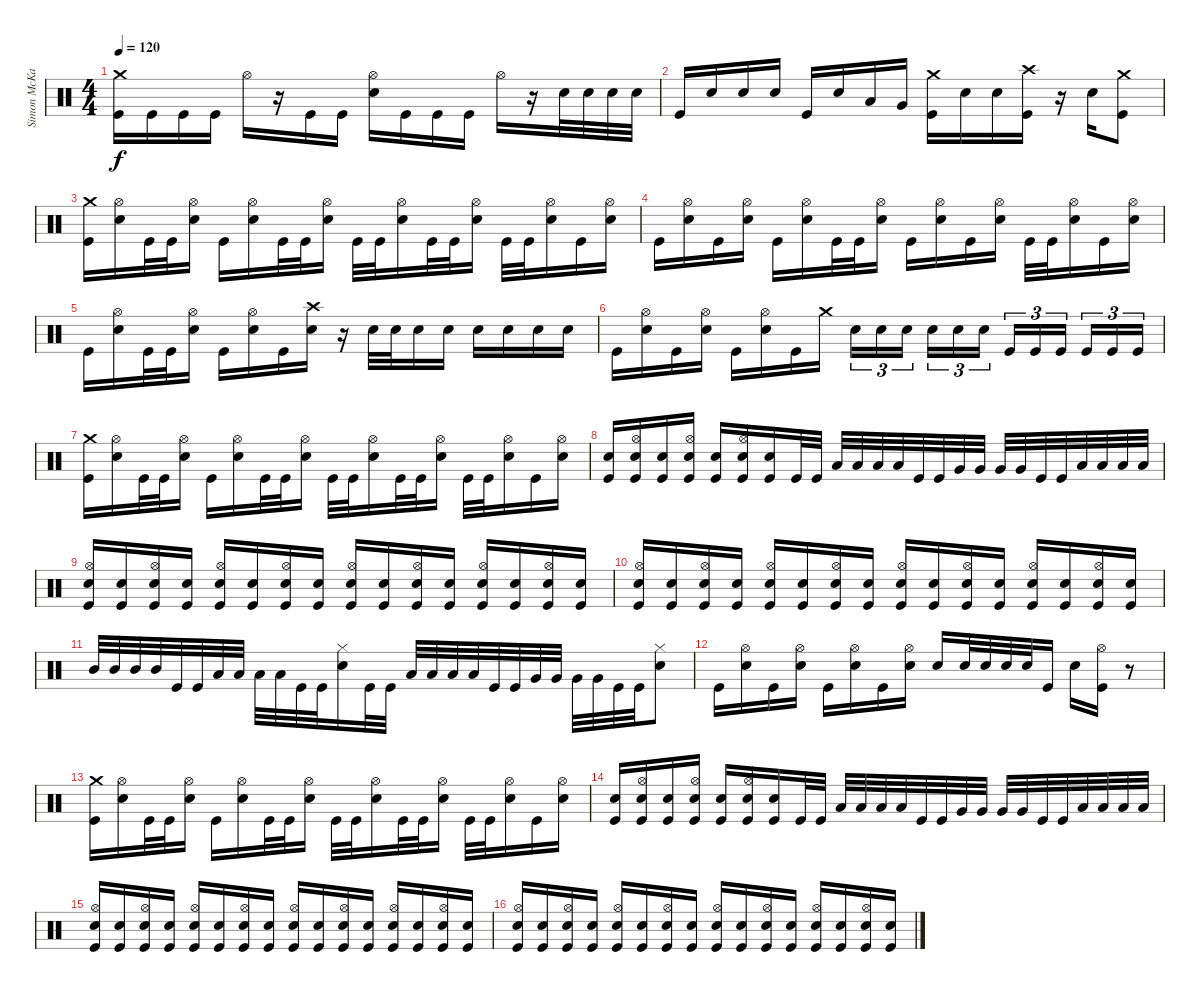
\track ("Simon McKay" "Simon McKa") {instrument percussion}
\staff {score}
\articulation defaults
\ts (4 4)
\tempo 120
\clef neutral
\ks c
("Crash medium (hit)" "Kick (hit)").16{dy f} "Kick (hit)".16 "Kick (hit)".16 "Kick (hit)".16 "Hi-Hat (open)".16 r.16 "Kick (hit)".16 "Kick (hit)".16 ("Hi-Hat (open)" "Electric Snare (hit)").16 "Kick (hit)".16 "Kick (hit)".16 "Kick (hit)".16 "Hi-Hat (open)".16 r.16 "Electric Snare (hit)".32 "Electric Snare (hit)".32 "Electric Snare (hit)".32 "Electric Snare (hit)".32 |
"Kick (hit)".16 "Electric Snare (hit)".16 "Electric Snare (hit)".16 "Electric Snare (hit)".16 "Kick (hit)".16 "Electric Snare (hit)".16 "Low Tom (hit)".16 "Very Low Tom (hit)".16 ("Crash medium (hit)" "Kick (hit)").16 "Electric Snare (hit)".16 "Electric Snare (hit)".16 ("Crash high (hit)" "Kick (hit)").16 r.16 "Electric Snare (hit)".16 ("Crash medium (hit)" "Kick (hit)").8 |
("Crash medium (hit)" "Kick (hit)").16 ("Hi-Hat (open)" "Electric Snare (hit)").16 "Kick (hit)".32 "Kick (hit)".32 ("Hi-Hat (open)" "Electric Snare (hit)").16 "Kick (hit)".16 ("Hi-Hat (open)" "Electric Snare (hit)").16 "Kick (hit)".32 "Kick (hit)".32 ("Hi-Hat (open)" "Electric Snare (hit)").16 "Kick (hit)".32 "Kick (hit)".32 ("Hi-Hat (open)" "Electric Snare (hit)").16 "Kick (hit)".32 "Kick (hit)".32 ("Hi-Hat (open)" "Electric Snare (hit)").16 "Kick (hit)".32 "Kick (hit)".32 ("Hi-Hat (open)" "Electric Snare (hit)").16 "Kick (hit)".16 ("Hi-Hat (open)" "Electric Snare (hit)").16 |
"Kick (hit)".16 ("Hi-Hat (open)" "Electric Snare (hit)").16 "Kick (hit)".16 ("Hi-Hat (open)" "Electric Snare (hit)").16 "Kick (hit)".16 ("Hi-Hat (open)" "Electric Snare (hit)").16 "Kick (hit)".32 "Kick (hit)".32 ("Hi-Hat (open)" "Electric Snare (hit)").16 "Kick (hit)".16 ("Hi-Hat (open)" "Electric Snare (hit)").16 "Kick (hit)".16 ("Hi-Hat (open)" "Electric Snare (hit)").16 "Kick (hit)".32 "Kick (hit)".32 ("Hi-Hat (open)" "Electric Snare (hit)").16 "Kick (hit)".16 ("Hi-Hat (open)" "Electric Snare (hit)").16 |
"Kick (hit)".16 ("Hi-Hat (open)" "Electric Snare (hit)").16 "Kick (hit)".32 "Kick (hit)".32 ("Hi-Hat (open)" "Electric Snare (hit)").16 "Kick (hit)".16 ("Hi-Hat (open)" "Electric Snare (hit)").16 "Kick (hit)".16 ("Crash high (hit)" "Electric Snare (hit)").16 r.16 "Electric Snare (hit)".32 "Electric Snare (hit)".32 "Electric Snare (hit)".16 "Electric Snare (hit)".16 "Electric Snare (hit)".16 "Electric Snare (hit)".16 "Electric Snare (hit)".16 "Electric Snare (hit)".16 |
"Kick (hit)".16 ("Hi-Hat (open)" "Electric Snare (hit)").16 "Kick (hit)".16 ("Hi-Hat (open)" "Electric Snare (hit)").16 "Kick (hit)".16 ("Hi-Hat (open)" "Electric Snare (hit)").16 "Kick (hit)".16 "Crash medium (hit)".16 "Electric Snare (hit)".16{tu (3 2)} "Electric Snare (hit)".16{tu (3 2)} "Electric Snare (hit)".16{tu (3 2) beam splitsecondary} "Electric Snare (hit)".16{tu (3 2)} "Electric Snare (hit)".16{tu (3 2)} "Electric Snare (hit)".16{tu (3 2)} "Kick (hit)".16{tu (3 2)} "Kick (hit)".16{tu (3 2)} "Kick (hit)".16{tu (3 2) beam splitsecondary} "Kick (hit)".16{tu (3 2)} "Kick (hit)".16{tu (3 2)} "Kick (hit)".16{tu (3 2)} |
("Crash medium (hit)" "Kick (hit)").16 ("Hi-Hat (open)" "Electric Snare (hit)").16 "Kick (hit)".32 "Kick (hit)".32 ("Hi-Hat (open)" "Electric Snare (hit)").16 "Kick (hit)".16 ("Hi-Hat (open)" "Electric Snare (hit)").16 "Kick (hit)".32 "Kick (hit)".32 ("Hi-Hat (open)" "Electric Snare (hit)").16 "Kick (hit)".32 "Kick (hit)".32 ("Hi-Hat (open)" "Electric Snare (hit)").16 "Kick (hit)".32 "Kick (hit)".32 ("Hi-Hat (open)" "Electric Snare (hit)").16 "Kick (hit)".32 "Kick (hit)".32 ("Hi-Hat (open)" "Electric Snare (hit)").16 "Kick (hit)".16 ("Hi-Hat (open)" "Electric Snare (hit)").16 |
("Electric Snare (hit)" "Kick (hit)").16 ("Hi-Hat (open)" "Electric Snare (hit)" "Kick (hit)").16 ("Electric Snare (hit)" "Kick (hit)").16 ("Hi-Hat (open)" "Electric Snare (hit)" "Kick (hit)").16 ("Electric Snare (hit)" "Kick (hit)").16 ("Hi-Hat (open)" "Electric Snare (hit)" "Kick (hit)").16 ("Electric Snare (hit)" "Kick (hit)").16 "Kick (hit)".32 "Kick (hit)".32 "Low Tom (hit)".32 "Low Tom (hit)".32 "Low Tom (hit)".32 "Low Tom (hit)".32 "Kick (hit)".32 "Kick (hit)".32 "Very Low Tom (hit)".32 "Very Low Tom (hit)".32 "Very Low Tom (hit)".32 "Very Low Tom (hit)".32 "Kick (hit)".32 "Kick (hit)".32 "Low Floor Tom (hit)".32 "Low Floor Tom (hit)".32 "Low Floor Tom (hit)".32 "Low Floor Tom (hit)".32 |
("Hi-Hat (open)" "Electric Snare (hit)" "Kick (hit)").16 ("Electric Snare (hit)" "Kick (hit)").16 ("Hi-Hat (open)" "Electric Snare (hit)" "Kick (hit)").16 ("Electric Snare (hit)" "Kick (hit)").16 ("Hi-Hat (open)" "Electric Snare (hit)" "Kick (hit)").16 ("Electric Snare (hit)" "Kick (hit)").16 ("Hi-Hat (open)" "Electric Snare (hit)" "Kick (hit)").16 ("Electric Snare (hit)" "Kick (hit)").16 ("Hi-Hat (open)" "Electric Snare (hit)" "Kick (hit)").16 ("Electric Snare (hit)" "Kick (hit)").16 ("Hi-Hat (open)" "Electric Snare (hit)" "Kick (hit)").16 ("Electric Snare (hit)" "Kick (hit)").16 ("Hi-Hat (open)" "Electric Snare (hit)" "Kick (hit)").16 ("Electric Snare (hit)" "Kick (hit)").16 ("Hi-Hat (open)" "Electric Snare (hit)" "Kick (hit)").16 ("Electric Snare (hit)" "Kick (hit)").16 |
("Hi-Hat (open)" "Electric Snare (hit)" "Kick (hit)").16 ("Electric Snare (hit)" "Kick (hit)").16 ("Hi-Hat (open)" "Electric Snare (hit)" "Kick (hit)").16 ("Electric Snare (hit)" "Kick (hit)").16 ("Hi-Hat (open)" "Electric Snare (hit)" "Kick (hit)").16 ("Electric Snare (hit)" "Kick (hit)").16 ("Hi-Hat (open)" "Electric Snare (hit)" "Kick (hit)").16 ("Electric Snare (hit)" "Kick (hit)").16 ("Hi-Hat (open)" "Electric Snare (hit)" "Kick (hit)").16 ("Electric Snare (hit)" "Kick (hit)").16 ("Hi-Hat (open)" "Electric Snare (hit)" "Kick (hit)").16 ("Electric Snare (hit)" "Kick (hit)").16 ("Hi-Hat (open)" "Electric Snare (hit)" "Kick (hit)").16 ("Electric Snare (hit)" "Kick (hit)").16 ("Hi-Hat (open)" "Electric Snare (hit)" "Kick (hit)").16 ("Electric Snare (hit)" "Kick (hit)").16 |
"Mid Tom (hit)".32 "Mid Tom (hit)".32 "Mid Tom (hit)".32 "Mid Tom (hit)".32 "Kick (hit)".32 "Kick (hit)".32 "Low Tom (hit)".32 "Low Tom (hit)".32 "Low Tom (hit)".32 "Low Tom (hit)".32 "Kick (hit)".32 "Kick (hit)".32 ("Hi-Hat (closed)" "Electric Snare (hit)").16 "Kick (hit)".32 "Kick (hit)".32 "Low Tom (hit)".32 "Low Tom (hit)".32 "Low Tom (hit)".32 "Low Tom (hit)".32 "Kick (hit)".32 "Kick (hit)".32 "Very Low Tom (hit)".32 "Very Low Tom (hit)".32 "Very Low Tom (hit)".32 "Very Low Tom (hit)".32 "Kick (hit)".32 "Kick (hit)".32 ("Hi-Hat (closed)" "Electric Snare (hit)").8 |
"Kick (hit)".16 ("Hi-Hat (open)" "Electric Snare (hit)").16 "Kick (hit)".16 ("Hi-Hat (open)" "Electric Snare (hit)").16 "Kick (hit)".16 ("Hi-Hat (open)" "Electric Snare (hit)").16 "Kick (hit)".16 ("Hi-Hat (open)" "Electric Snare (hit)").16 "Electric Snare (hit)".16 "Electric Snare (hit)".32 "Electric Snare (hit)".32 "Electric Snare (hit)".32 "Electric Snare (hit)".32 "Kick (hit)".16 "Electric Snare (hit)".16 ("Hi-Hat (open)" "Kick (hit)").16 r.8 |
("Crash medium (hit)" "Kick (hit)").16 ("Hi-Hat (open)" "Electric Snare (hit)").16 "Kick (hit)".32 "Kick (hit)".32 ("Hi-Hat (open)" "Electric Snare (hit)").16 "Kick (hit)".16 ("Hi-Hat (open)" "Electric Snare (hit)").16 "Kick (hit)".32 "Kick (hit)".32 ("Hi-Hat (open)" "Electric Snare (hit)").16 "Kick (hit)".32 "Kick (hit)".32 ("Hi-Hat (open)" "Electric Snare (hit)").16 "Kick (hit)".32 "Kick (hit)".32 ("Hi-Hat (open)" "Electric Snare (hit)").16 "Kick (hit)".32 "Kick (hit)".32 ("Hi-Hat (open)" "Electric Snare (hit)").16 "Kick (hit)".16 ("Hi-Hat (open)" "Electric Snare (hit)").16 |
("Electric Snare (hit)" "Kick (hit)").16 ("Hi-Hat (open)" "Electric Snare (hit)" "Kick (hit)").16 ("Electric Snare (hit)" "Kick (hit)").16 ("Hi-Hat (open)" "Electric Snare (hit)" "Kick (hit)").16 ("Electric Snare (hit)" "Kick (hit)").16 ("Hi-Hat (open)" "Electric Snare (hit)" "Kick (hit)").16 ("Electric Snare (hit)" "Kick (hit)").16 "Kick (hit)".32 "Kick (hit)".32 "Low Tom (hit)".32 "Low Tom (hit)".32 "Low Tom (hit)".32 "Low Tom (hit)".32 "Kick (hit)".32 "Kick (hit)".32 "Very Low Tom (hit)".32 "Very Low Tom (hit)".32 "Very Low Tom (hit)".32 "Very Low Tom (hit)".32 "Kick (hit)".32 "Kick (hit)".32 "Low Floor Tom (hit)".32 "Low Floor Tom (hit)".32 "Low Floor Tom (hit)".32 "Low Floor Tom (hit)".32 |
("Hi-Hat (open)" "Electric Snare (hit)" "Kick (hit)").16 ("Electric Snare (hit)" "Kick (hit)").16 ("Hi-Hat (open)" "Electric Snare (hit)" "Kick (hit)").16 ("Electric Snare (hit)" "Kick (hit)").16 ("Hi-Hat (open)" "Electric Snare (hit)" "Kick (hit)").16 ("Electric Snare (hit)" "Kick (hit)").16 ("Hi-Hat (open)" "Electric Snare (hit)" "Kick (hit)").16 ("Electric Snare (hit)" "Kick (hit)").16 ("Hi-Hat (open)" "Electric Snare (hit)" "Kick (hit)").16 ("Electric Snare (hit)" "Kick (hit)").16 ("Hi-Hat (open)" "Electric Snare (hit)" "Kick (hit)").16 ("Electric Snare (hit)" "Kick (hit)").16 ("Hi-Hat (open)" "Electric Snare (hit)" "Kick (hit)").16 ("Electric Snare (hit)" "Kick (hit)").16 ("Hi-Hat (open)" "Electric Snare (hit)" "Kick (hit)").16 ("Electric Snare (hit)" "Kick (hit)").16 |
("Hi-Hat (open)" "Electric Snare (hit)" "Kick (hit)").16 ("Electric Snare (hit)" "Kick (hit)").16 ("Hi-Hat (open)" "Electric Snare (hit)" "Kick (hit)").16 ("Electric Snare (hit)" "Kick (hit)").16 ("Hi-Hat (open)" "Electric Snare (hit)" "Kick (hit)").16 ("Electric Snare (hit)" "Kick (hit)").16 ("Hi-Hat (open)" "Electric Snare (hit)" "Kick (hit)").16 ("Electric Snare (hit)" "Kick (hit)").16 ("Hi-Hat (open)" "Electric Snare (hit)" "Kick (hit)").16 ("Electric Snare (hit)" "Kick (hit)").16 ("Hi-Hat (open)" "Electric Snare (hit)" "Kick (hit)").16 ("Electric Snare (hit)" "Kick (hit)").16 ("Hi-Hat (open)" "Electric Snare (hit)" "Kick (hit)").16 ("Electric Snare (hit)" "Kick (hit)").16 ("Hi-Hat (open)" "Electric Snare (hit)" "Kick (hit)").16 ("Electric Snare (hit)" "Kick (hit)").16
